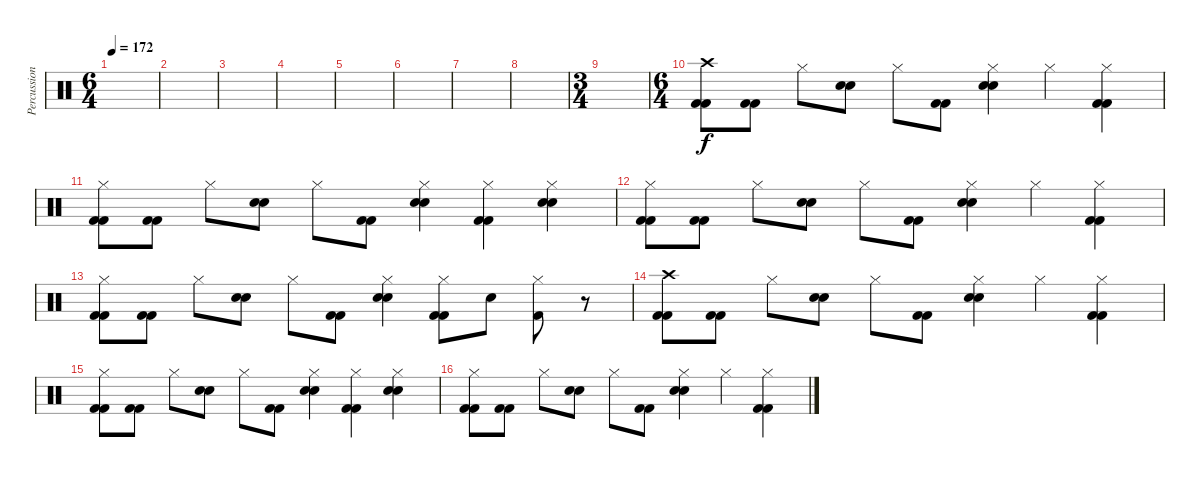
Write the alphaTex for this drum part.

\track ("Percussion" "Percussion") {instrument percussion}
\staff {score}
\articulation defaults
\ts (6 4)
\tempo 172
\clef neutral
\ks c
|
|
|
|
|
|
|
|
\ts (3 4)
|
\ts (6 4)
("Crash high (hit)" "Kick (hit) 2" "Kick (hit) 2").8{volume 16} ("Kick (hit) 2" "Kick (hit) 2").8 "Hi-Hat (closed)".8 ("Electric Snare (hit)" "Electric Snare (hit)").8 "Hi-Hat (closed)".8 ("Kick (hit) 2" "Kick (hit) 2").8 ("Hi-Hat (closed)" "Electric Snare (hit)" "Electric Snare (hit)").4 "Hi-Hat (closed)".4 ("Hi-Hat (closed)" "Kick (hit) 2" "Kick (hit) 2").4 |
("Hi-Hat (closed)" "Kick (hit) 2" "Kick (hit) 2").8 ("Kick (hit) 2" "Kick (hit) 2").8 "Hi-Hat (closed)".8 ("Electric Snare (hit)" "Electric Snare (hit)").8 "Hi-Hat (closed)".8 ("Kick (hit) 2" "Kick (hit) 2").8 ("Hi-Hat (closed)" "Electric Snare (hit)" "Electric Snare (hit)").4 ("Hi-Hat (closed)" "Kick (hit) 2" "Kick (hit) 2").4 ("Hi-Hat (closed)" "Electric Snare (hit)" "Electric Snare (hit)").4 |
("Hi-Hat (closed)" "Kick (hit) 2" "Kick (hit) 2").8 ("Kick (hit) 2" "Kick (hit) 2").8 "Hi-Hat (closed)".8 ("Electric Snare (hit)" "Electric Snare (hit)").8 "Hi-Hat (closed)".8 ("Kick (hit) 2" "Kick (hit) 2").8 ("Hi-Hat (closed)" "Electric Snare (hit)" "Electric Snare (hit)").4 "Hi-Hat (closed)".4 ("Hi-Hat (closed)" "Kick (hit) 2" "Kick (hit) 2").4 |
("Hi-Hat (closed)" "Kick (hit) 2" "Kick (hit) 2").8 ("Kick (hit) 2" "Kick (hit) 2").8 "Hi-Hat (closed)".8 ("Electric Snare (hit)" "Electric Snare (hit)").8 "Hi-Hat (closed)".8 ("Kick (hit) 2" "Kick (hit) 2").8 ("Hi-Hat (closed)" "Electric Snare (hit)" "Electric Snare (hit)").4 ("Hi-Hat (closed)" "Kick (hit) 2" "Kick (hit) 2").8 "Electric Snare (hit)".8 ("Hi-Hat (closed)" "Kick (hit) 2").8 r.8 |
("Crash high (hit)" "Kick (hit) 2" "Kick (hit) 2").8 ("Kick (hit) 2" "Kick (hit) 2").8 "Hi-Hat (closed)".8 ("Electric Snare (hit)" "Electric Snare (hit)").8 "Hi-Hat (closed)".8 ("Kick (hit) 2" "Kick (hit) 2").8 ("Hi-Hat (closed)" "Electric Snare (hit)" "Electric Snare (hit)").4 "Hi-Hat (closed)".4 ("Hi-Hat (closed)" "Kick (hit) 2" "Kick (hit) 2").4 |
("Hi-Hat (closed)" "Kick (hit) 2" "Kick (hit) 2").8 ("Kick (hit) 2" "Kick (hit) 2").8 "Hi-Hat (closed)".8 ("Electric Snare (hit)" "Electric Snare (hit)").8 "Hi-Hat (closed)".8 ("Kick (hit) 2" "Kick (hit) 2").8 ("Hi-Hat (closed)" "Electric Snare (hit)" "Electric Snare (hit)").4 ("Hi-Hat (closed)" "Kick (hit) 2" "Kick (hit) 2").4 ("Hi-Hat (closed)" "Electric Snare (hit)" "Electric Snare (hit)").4 |
("Hi-Hat (closed)" "Kick (hit) 2" "Kick (hit) 2").8 ("Kick (hit) 2" "Kick (hit) 2").8 "Hi-Hat (closed)".8 ("Electric Snare (hit)" "Electric Snare (hit)").8 "Hi-Hat (closed)".8 ("Kick (hit) 2" "Kick (hit) 2").8 ("Hi-Hat (closed)" "Electric Snare (hit)" "Electric Snare (hit)").4 "Hi-Hat (closed)".4 ("Hi-Hat (closed)" "Kick (hit) 2" "Kick (hit) 2").4
